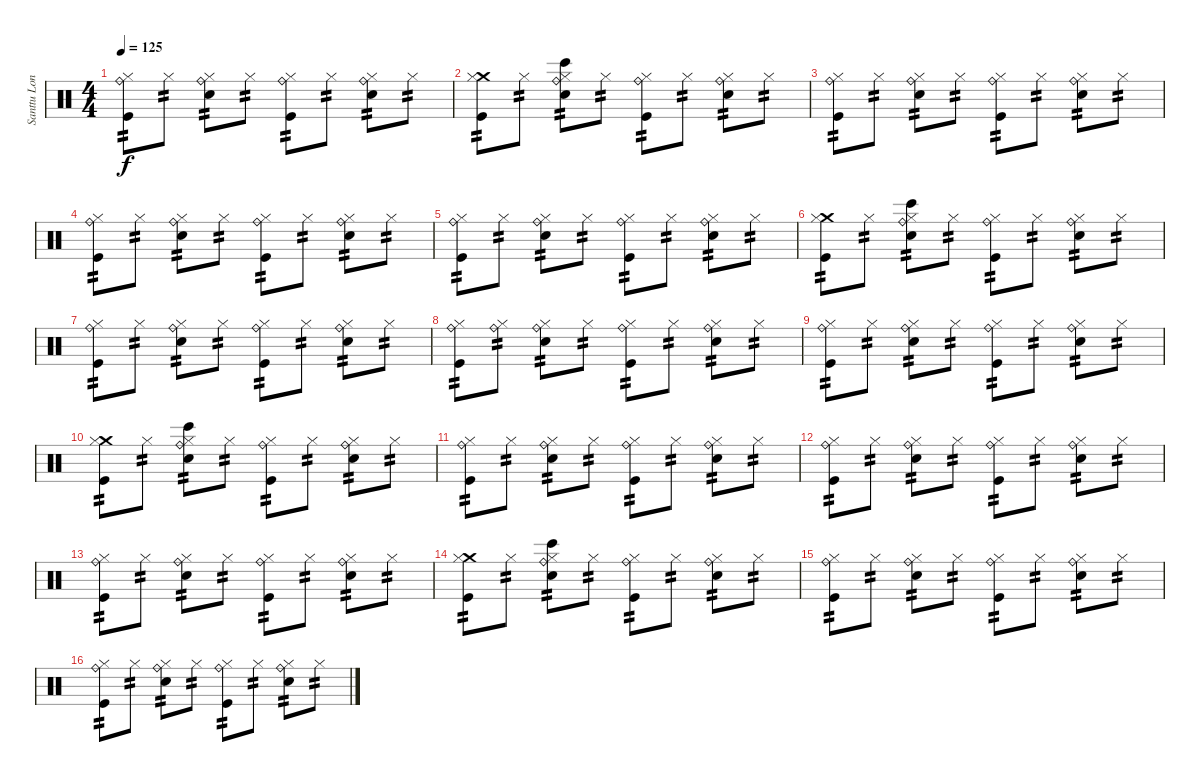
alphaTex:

\track ("Santtu Lonka" "Santtu Lon") {instrument percussion}
\staff {score}
\articulation defaults
\ts (4 4)
\tempo 125
\clef neutral
\ks c
("Ride (bell)" "Hi-Hat (closed)" "Kick (hit)").8{tp 2 dy f} "Hi-Hat (closed)".8{tp 2} ("Ride (bell)" "Hi-Hat (closed)" "Electric Snare (hit)").8{tp 2} "Hi-Hat (closed)".8{tp 2} ("Ride (bell)" "Hi-Hat (closed)" "Kick (hit)").8{tp 2} "Hi-Hat (closed)".8{tp 2} ("Ride (bell)" "Hi-Hat (closed)" "Electric Snare (hit)").8{tp 2} "Hi-Hat (closed)".8{tp 2} |
("Crash medium (hit)" "Hi-Hat (closed)" "Kick (hit)").8{tp 2} "Hi-Hat (closed)".8{tp 2} ("Ride (bell)" "Hi-Hat (closed)" "Electric Snare (hit)" "Bongo High (hit)").8{tp 2} "Hi-Hat (closed)".8{tp 2} ("Ride (bell)" "Hi-Hat (closed)" "Kick (hit)").8{tp 2} "Hi-Hat (closed)".8{tp 2} ("Ride (bell)" "Hi-Hat (closed)" "Electric Snare (hit)").8{tp 2} "Hi-Hat (closed)".8{tp 2} |
("Ride (bell)" "Hi-Hat (closed)" "Kick (hit)").8{tp 2} "Hi-Hat (closed)".8{tp 2} ("Ride (bell)" "Hi-Hat (closed)" "Electric Snare (hit)").8{tp 2} "Hi-Hat (closed)".8{tp 2} ("Ride (bell)" "Hi-Hat (closed)" "Kick (hit)").8{tp 2} "Hi-Hat (closed)".8{tp 2} ("Ride (bell)" "Hi-Hat (closed)" "Electric Snare (hit)").8{tp 2} "Hi-Hat (closed)".8{tp 2} |
("Ride (bell)" "Hi-Hat (closed)" "Kick (hit)").8{tp 2} "Hi-Hat (closed)".8{tp 2} ("Ride (bell)" "Hi-Hat (closed)" "Electric Snare (hit)").8{tp 2} "Hi-Hat (closed)".8{tp 2} ("Ride (bell)" "Hi-Hat (closed)" "Kick (hit)").8{tp 2} "Hi-Hat (closed)".8{tp 2} ("Ride (bell)" "Hi-Hat (closed)" "Electric Snare (hit)").8{tp 2} "Hi-Hat (closed)".8{tp 2} |
("Ride (bell)" "Hi-Hat (closed)" "Kick (hit)").8{tp 2} "Hi-Hat (closed)".8{tp 2} ("Ride (bell)" "Hi-Hat (closed)" "Electric Snare (hit)").8{tp 2} "Hi-Hat (closed)".8{tp 2} ("Ride (bell)" "Hi-Hat (closed)" "Kick (hit)").8{tp 2} "Hi-Hat (closed)".8{tp 2} ("Ride (bell)" "Hi-Hat (closed)" "Electric Snare (hit)").8{tp 2} "Hi-Hat (closed)".8{tp 2} |
("Crash medium (hit)" "Hi-Hat (closed)" "Kick (hit)").8{tp 2} "Hi-Hat (closed)".8{tp 2} ("Ride (bell)" "Hi-Hat (closed)" "Electric Snare (hit)" "Bongo High (hit)").8{tp 2} "Hi-Hat (closed)".8{tp 2} ("Ride (bell)" "Hi-Hat (closed)" "Kick (hit)").8{tp 2} "Hi-Hat (closed)".8{tp 2} ("Ride (bell)" "Hi-Hat (closed)" "Electric Snare (hit)").8{tp 2} "Hi-Hat (closed)".8{tp 2} |
("Ride (bell)" "Hi-Hat (closed)" "Kick (hit)").8{tp 2} "Hi-Hat (closed)".8{tp 2} ("Ride (bell)" "Hi-Hat (closed)" "Electric Snare (hit)").8{tp 2} "Hi-Hat (closed)".8{tp 2} ("Ride (bell)" "Hi-Hat (closed)" "Kick (hit)").8{tp 2} "Hi-Hat (closed)".8{tp 2} ("Ride (bell)" "Hi-Hat (closed)" "Electric Snare (hit)").8{tp 2} "Hi-Hat (closed)".8{tp 2} |
("Ride (bell)" "Hi-Hat (closed)" "Kick (hit)").8{tp 2} ("Ride (bell)" "Hi-Hat (closed)").8{tp 2} ("Ride (bell)" "Hi-Hat (closed)" "Electric Snare (hit)").8{tp 2} "Hi-Hat (closed)".8{tp 2} ("Ride (bell)" "Hi-Hat (closed)" "Kick (hit)").8{tp 2} "Hi-Hat (closed)".8{tp 2} ("Ride (bell)" "Hi-Hat (closed)" "Electric Snare (hit)").8{tp 2} "Hi-Hat (closed)".8{tp 2} |
("Ride (bell)" "Hi-Hat (closed)" "Kick (hit)").8{tp 2} "Hi-Hat (closed)".8{tp 2} ("Ride (bell)" "Hi-Hat (closed)" "Electric Snare (hit)").8{tp 2} "Hi-Hat (closed)".8{tp 2} ("Ride (bell)" "Hi-Hat (closed)" "Kick (hit)").8{tp 2} "Hi-Hat (closed)".8{tp 2} ("Ride (bell)" "Hi-Hat (closed)" "Electric Snare (hit)").8{tp 2} "Hi-Hat (closed)".8{tp 2} |
("Crash medium (hit)" "Hi-Hat (closed)" "Kick (hit)").8{tp 2} "Hi-Hat (closed)".8{tp 2} ("Ride (bell)" "Hi-Hat (closed)" "Electric Snare (hit)" "Bongo High (hit)").8{tp 2} "Hi-Hat (closed)".8{tp 2} ("Ride (bell)" "Hi-Hat (closed)" "Kick (hit)").8{tp 2} "Hi-Hat (closed)".8{tp 2} ("Ride (bell)" "Hi-Hat (closed)" "Electric Snare (hit)").8{tp 2} "Hi-Hat (closed)".8{tp 2} |
("Ride (bell)" "Hi-Hat (closed)" "Kick (hit)").8{tp 2} "Hi-Hat (closed)".8{tp 2} ("Ride (bell)" "Hi-Hat (closed)" "Electric Snare (hit)").8{tp 2} "Hi-Hat (closed)".8{tp 2} ("Ride (bell)" "Hi-Hat (closed)" "Kick (hit)").8{tp 2} "Hi-Hat (closed)".8{tp 2} ("Ride (bell)" "Hi-Hat (closed)" "Electric Snare (hit)").8{tp 2} "Hi-Hat (closed)".8{tp 2} |
("Ride (bell)" "Hi-Hat (closed)" "Kick (hit)").8{tp 2} "Hi-Hat (closed)".8{tp 2} ("Ride (bell)" "Hi-Hat (closed)" "Electric Snare (hit)").8{tp 2} "Hi-Hat (closed)".8{tp 2} ("Ride (bell)" "Hi-Hat (closed)" "Kick (hit)").8{tp 2} "Hi-Hat (closed)".8{tp 2} ("Ride (bell)" "Hi-Hat (closed)" "Electric Snare (hit)").8{tp 2} "Hi-Hat (closed)".8{tp 2} |
("Ride (bell)" "Hi-Hat (closed)" "Kick (hit)").8{tp 2} "Hi-Hat (closed)".8{tp 2} ("Ride (bell)" "Hi-Hat (closed)" "Electric Snare (hit)").8{tp 2} "Hi-Hat (closed)".8{tp 2} ("Ride (bell)" "Hi-Hat (closed)" "Kick (hit)").8{tp 2} "Hi-Hat (closed)".8{tp 2} ("Ride (bell)" "Hi-Hat (closed)" "Electric Snare (hit)").8{tp 2} "Hi-Hat (closed)".8{tp 2} |
("Crash medium (hit)" "Hi-Hat (closed)" "Kick (hit)").8{tp 2} "Hi-Hat (closed)".8{tp 2} ("Ride (bell)" "Hi-Hat (closed)" "Electric Snare (hit)" "Bongo High (hit)").8{tp 2} "Hi-Hat (closed)".8{tp 2} ("Ride (bell)" "Hi-Hat (closed)" "Kick (hit)").8{tp 2} "Hi-Hat (closed)".8{tp 2} ("Ride (bell)" "Hi-Hat (closed)" "Electric Snare (hit)").8{tp 2} "Hi-Hat (closed)".8{tp 2} |
("Ride (bell)" "Hi-Hat (closed)" "Kick (hit)").8{tp 2} "Hi-Hat (closed)".8{tp 2} ("Ride (bell)" "Hi-Hat (closed)" "Electric Snare (hit)").8{tp 2} "Hi-Hat (closed)".8{tp 2} ("Ride (bell)" "Hi-Hat (closed)" "Kick (hit)").8{tp 2} "Hi-Hat (closed)".8{tp 2} ("Ride (bell)" "Hi-Hat (closed)" "Electric Snare (hit)").8{tp 2} "Hi-Hat (closed)".8{tp 2} |
("Ride (bell)" "Hi-Hat (closed)" "Kick (hit)").8{tp 2} "Hi-Hat (closed)".8{tp 2} ("Ride (bell)" "Hi-Hat (closed)" "Electric Snare (hit)").8{tp 2} "Hi-Hat (closed)".8{tp 2} ("Ride (bell)" "Hi-Hat (closed)" "Kick (hit)").8{tp 2} "Hi-Hat (closed)".8{tp 2} ("Ride (bell)" "Hi-Hat (closed)" "Electric Snare (hit)").8{tp 2} "Hi-Hat (closed)".8{tp 2}
